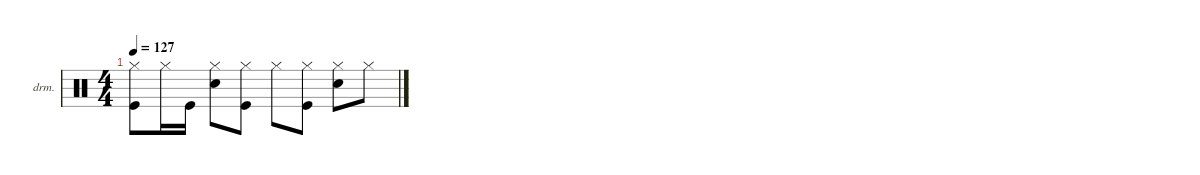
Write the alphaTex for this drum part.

\defaultSystemsLayout 4
\hideDynamics
\bracketExtendMode nobrackets
\firstSystemTrackNameOrientation horizontal
\otherSystemsTrackNameOrientation horizontal
\track ("Drums" "drm.") {instrument percussion}
\staff {score}
\articulation defaults
\ts (4 4)
\tempo 127
\clef neutral
\ks c
("Hi-Hat (closed)" "Kick (hit)").8{dy f beam Down} "Hi-Hat (closed)".16{beam Down} "Kick (hit)".16{beam Down} ("Snare (hit) 2" "Hi-Hat (closed)").8{beam Down} ("Hi-Hat (closed)" "Kick (hit)").8{beam Down} "Hi-Hat (closed)".8{beam Down} ("Hi-Hat (closed)" "Kick (hit)").8{beam Down} ("Snare (hit) 2" "Hi-Hat (closed)").8{beam Down} "Hi-Hat (closed)".8{beam Down}
